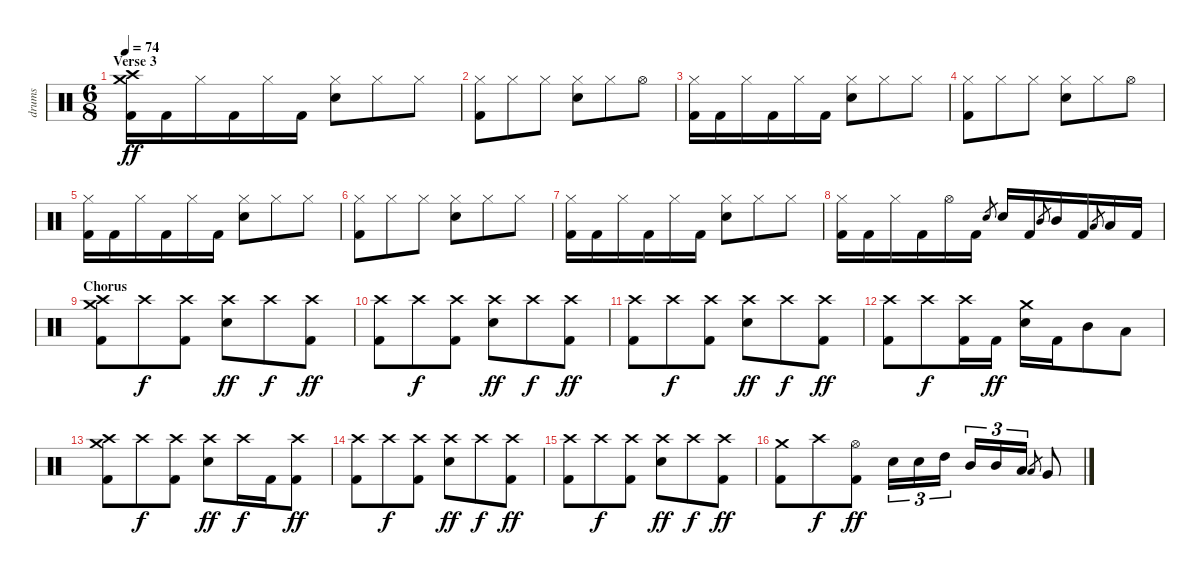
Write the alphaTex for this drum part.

\track ("drums" "drums") {instrument percussion}
\staff {score}
\articulation defaults
\ts (6 8)
\section ("" "Verse 3")
\tempo 74
\clef neutral
\ks c
("Crash high (hit)" "Crash medium (hit)" "Kick (hit) 2").16{dy ff} "Kick (hit) 2".16 "Hi-Hat (closed)".16 "Kick (hit) 2".16 "Hi-Hat (closed)".16 "Kick (hit) 2".16 ("Hi-Hat (closed)" "Snare (hit) 2").8 "Hi-Hat (closed)".8 "Hi-Hat (closed)".8 |
("Hi-Hat (closed)" "Kick (hit) 2").8 "Hi-Hat (closed)".8 "Hi-Hat (closed)".8 ("Hi-Hat (closed)" "Snare (hit) 2").8 "Hi-Hat (closed)".8 "Hi-Hat (open)".8 |
("Hi-Hat (closed)" "Kick (hit) 2").16 "Kick (hit) 2".16 "Hi-Hat (closed)".16 "Kick (hit) 2".16 "Hi-Hat (closed)".16 "Kick (hit) 2".16 ("Hi-Hat (closed)" "Snare (hit) 2").8 "Hi-Hat (closed)".8 "Hi-Hat (closed)".8 |
("Hi-Hat (closed)" "Kick (hit) 2").8 "Hi-Hat (closed)".8 "Hi-Hat (closed)".8 ("Hi-Hat (closed)" "Snare (hit) 2").8 "Hi-Hat (closed)".8 "Hi-Hat (open)".8 |
("Hi-Hat (closed)" "Kick (hit) 2").16 "Kick (hit) 2".16 "Hi-Hat (closed)".16 "Kick (hit) 2".16 "Hi-Hat (closed)".16 "Kick (hit) 2".16 ("Hi-Hat (closed)" "Snare (hit) 2").8 "Hi-Hat (closed)".8 "Hi-Hat (closed)".8 |
("Hi-Hat (closed)" "Kick (hit) 2").8 "Hi-Hat (closed)".8 "Hi-Hat (closed)".8 ("Hi-Hat (closed)" "Snare (hit) 2").8 "Hi-Hat (closed)".8 "Hi-Hat (closed)".8 |
("Hi-Hat (closed)" "Kick (hit) 2").16 "Kick (hit) 2".16 "Hi-Hat (closed)".16 "Kick (hit) 2".16 "Hi-Hat (closed)".16 "Kick (hit) 2".16 ("Hi-Hat (closed)" "Snare (hit) 2").8 "Hi-Hat (closed)".8 "Hi-Hat (closed)".8 |
("Hi-Hat (closed)" "Kick (hit) 2").16 "Kick (hit) 2".16 "Hi-Hat (closed)".16 "Kick (hit) 2".16 "Hi-Hat (open)".16 "Kick (hit) 2".16 "Snare (hit) 2".8{gr} "Snare (hit) 2".16 "Kick (hit) 2".16 "Mid Tom (hit)".8{gr} "Mid Tom (hit)".16 "Kick (hit) 2".16 "Low Tom (hit)".8{gr} "Low Tom (hit)".16 "Kick (hit) 2".16 |
\section ("" "Chorus")
("Crash medium (hit)" "Crash high (hit)" "Kick (hit) 2").8 "Crash high (hit)".8{dy f} ("Crash high (hit)" "Kick (hit) 2").8 ("Crash high (hit)" "Snare (hit) 2").8{dy ff} "Crash high (hit)".8{dy f} ("Crash high (hit)" "Kick (hit) 2").8{dy ff} |
("Crash high (hit)" "Kick (hit) 2").8 "Crash high (hit)".8{dy f} ("Crash high (hit)" "Kick (hit) 2").8 ("Crash high (hit)" "Snare (hit) 2").8{dy ff} "Crash high (hit)".8{dy f} ("Crash high (hit)" "Kick (hit) 2").8{dy ff} |
("Crash high (hit)" "Kick (hit) 2").8 "Crash high (hit)".8{dy f} ("Crash high (hit)" "Kick (hit) 2").8 ("Crash high (hit)" "Snare (hit) 2").8{dy ff} "Crash high (hit)".8{dy f} ("Crash high (hit)" "Kick (hit) 2").8{dy ff} |
("Crash high (hit)" "Kick (hit) 2").8 "Crash high (hit)".8{dy f} ("Crash high (hit)" "Kick (hit) 2").16 "Kick (hit) 2".16{dy ff} ("Crash medium (hit)" "Snare (hit) 2").16 "Kick (hit) 2".16 "Mid Tom (hit)".8 "Low Tom (hit)".8 |
("Crash high (hit)" "Crash medium (hit)" "Kick (hit) 2").8 "Crash high (hit)".8{dy f} ("Crash high (hit)" "Kick (hit) 2").8 ("Crash high (hit)" "Snare (hit) 2").8{dy ff} "Crash high (hit)".16{dy f} "Kick (hit) 2".16 ("Crash high (hit)" "Kick (hit) 2").8{dy ff} |
("Crash high (hit)" "Kick (hit) 2").8 "Crash high (hit)".8{dy f} ("Crash high (hit)" "Kick (hit) 2").8 ("Crash high (hit)" "Snare (hit) 2").8{dy ff} "Crash high (hit)".8{dy f} ("Crash high (hit)" "Kick (hit) 2").8{dy ff} |
("Crash high (hit)" "Kick (hit) 2").8 "Crash high (hit)".8{dy f} ("Crash high (hit)" "Kick (hit) 2").8 ("Crash high (hit)" "Snare (hit) 2").8{dy ff} "Crash high (hit)".8{dy f} ("Crash high (hit)" "Kick (hit) 2").8{dy ff} |
("Crash medium (hit)" "Kick (hit) 2").8 "Crash high (hit)".8{dy f} ("Hi-Hat (open)" "Kick (hit) 2").8{dy ff} "Snare (hit) 2".16{tu (3 2)} "Snare (hit) 2".16{tu (3 2)} "High Tom (hit)".16{tu (3 2)} "Mid Tom (hit)".16{tu (3 2)} "Mid Tom (hit)".16{tu (3 2)} "Low Tom (hit)".16{tu (3 2)} "Low Tom (hit)".8{gr} "Very Low Tom (hit)".8
